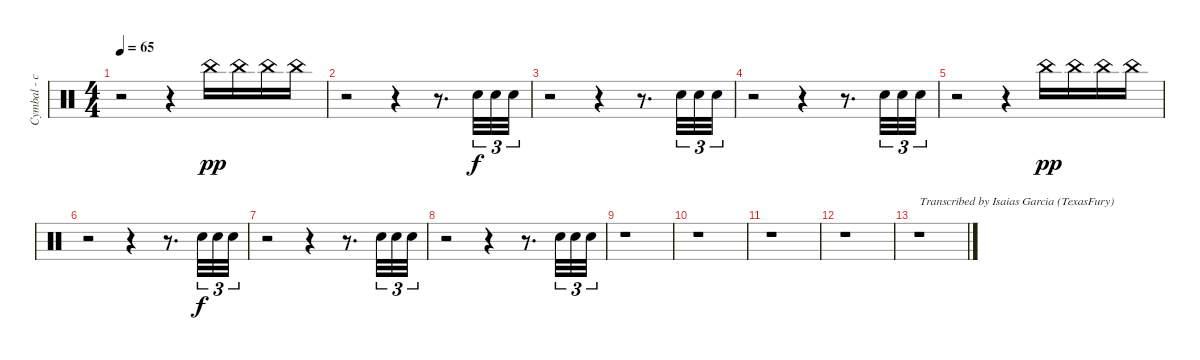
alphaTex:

\track ("Cymbal - china" "Cymbal - c") {instrument percussion}
\staff {score}
\articulation defaults
\ts (4 4)
\tempo 65
\clef neutral
\ks c
r.2{dy f} r.4{volume 13 balance 4} "China (hit)".16{dy pp} "China (hit)".16 "China (hit)".16 "China (hit)".16 |
r.2 r.4{volume 3 balance 8} r.8{d} "Snare (hit) 2".32{tu (3 2) dy f} "Snare (hit) 2".32{tu (3 2)} "Snare (hit) 2".32{tu (3 2)} |
r.2 r.4 r.8{d} "Snare (hit) 2".32{tu (3 2)} "Snare (hit) 2".32{tu (3 2)} "Snare (hit) 2".32{tu (3 2)} |
r.2 r.4 r.8{d} "Snare (hit) 2".32{tu (3 2)} "Snare (hit) 2".32{tu (3 2)} "Snare (hit) 2".32{tu (3 2)} |
r.2 r.4{volume 13 balance 4} "China (hit)".16{dy pp} "China (hit)".16 "China (hit)".16 "China (hit)".16 |
r.2 r.4{volume 3 balance 8} r.8{d} "Snare (hit) 2".32{tu (3 2) dy f} "Snare (hit) 2".32{tu (3 2)} "Snare (hit) 2".32{tu (3 2)} |
r.2 r.4 r.8{d} "Snare (hit) 2".32{tu (3 2)} "Snare (hit) 2".32{tu (3 2)} "Snare (hit) 2".32{tu (3 2)} |
r.2 r.4 r.8{d} "Snare (hit) 2".32{tu (3 2)} "Snare (hit) 2".32{tu (3 2)} "Snare (hit) 2".32{tu (3 2)} |
r.1 |
r.1 |
r.1 |
r.1 |
r.1{txt "Transcribed by Isaias Garcia (TexasFury)"}
